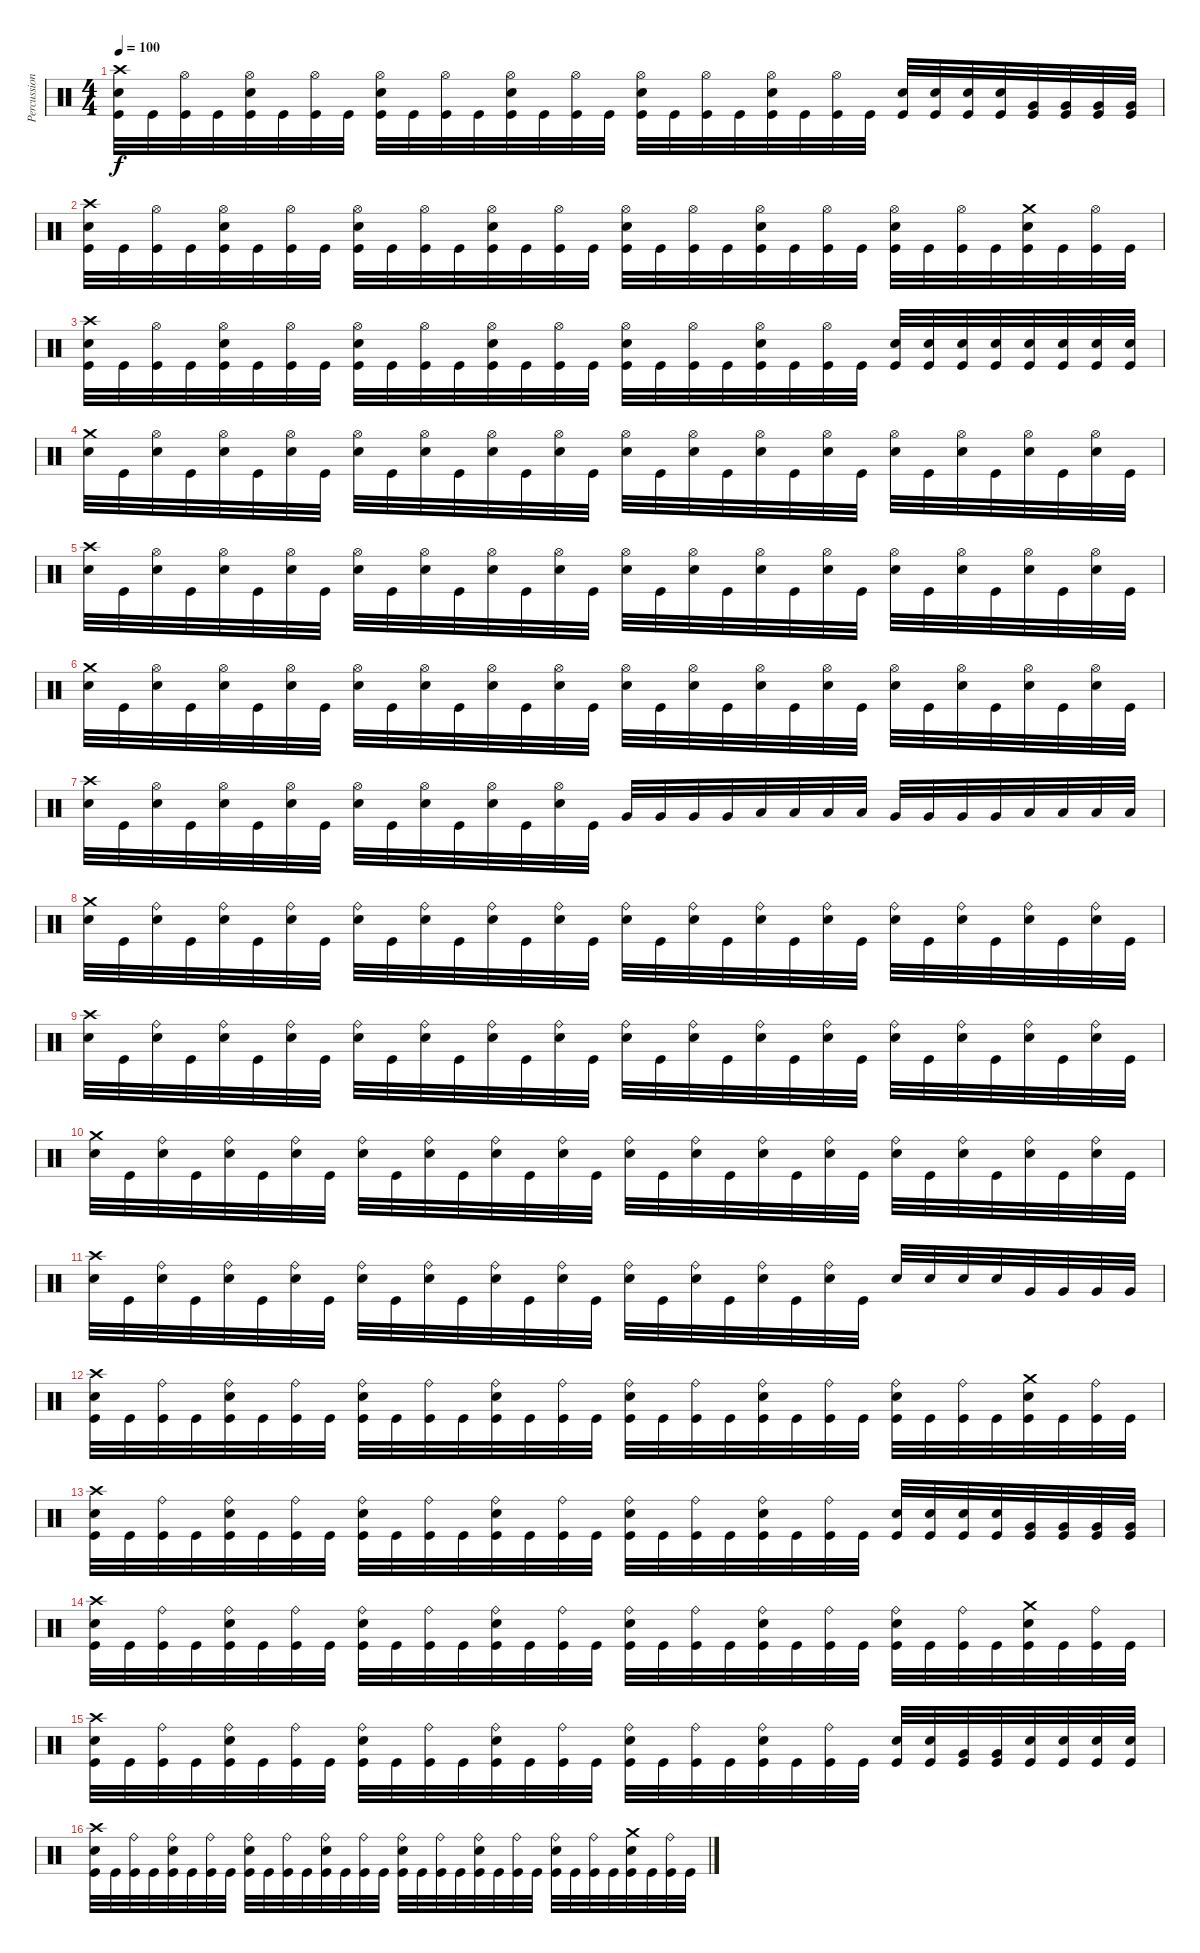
\track ("Percussion" "Percussion") {instrument percussion}
\staff {score}
\articulation defaults
\ts (4 4)
\tempo 100
\clef neutral
\ks c
("Crash high (hit)" "Electric Snare (hit)" "Kick (hit)").32{dy f} "Kick (hit)".32 ("Hi-Hat (open)" "Kick (hit)").32 "Kick (hit)".32 ("Hi-Hat (open)" "Electric Snare (hit)" "Kick (hit)").32 "Kick (hit)".32 ("Hi-Hat (open)" "Kick (hit)").32 "Kick (hit)".32 ("Hi-Hat (open)" "Electric Snare (hit)" "Kick (hit)").32 "Kick (hit)".32 ("Hi-Hat (open)" "Kick (hit)").32 "Kick (hit)".32 ("Hi-Hat (open)" "Electric Snare (hit)" "Kick (hit)").32 "Kick (hit)".32 ("Hi-Hat (open)" "Kick (hit)").32 "Kick (hit)".32 ("Hi-Hat (open)" "Electric Snare (hit)" "Kick (hit)").32 "Kick (hit)".32 ("Hi-Hat (open)" "Kick (hit)").32 "Kick (hit)".32 ("Hi-Hat (open)" "Electric Snare (hit)" "Kick (hit)").32 "Kick (hit)".32 ("Hi-Hat (open)" "Kick (hit)").32 "Kick (hit)".32 ("Electric Snare (hit)" "Kick (hit)").32 ("Electric Snare (hit)" "Kick (hit)").32 ("Electric Snare (hit)" "Kick (hit)").32 ("Electric Snare (hit)" "Kick (hit)").32 ("Very Low Tom (hit)" "Kick (hit)").32 ("Very Low Tom (hit)" "Kick (hit)").32 ("Very Low Tom (hit)" "Kick (hit)").32 ("Very Low Tom (hit)" "Kick (hit)").32 |
("Crash high (hit)" "Electric Snare (hit)" "Kick (hit)").32 "Kick (hit)".32 ("Hi-Hat (open)" "Kick (hit)").32 "Kick (hit)".32 ("Hi-Hat (open)" "Electric Snare (hit)" "Kick (hit)").32 "Kick (hit)".32 ("Hi-Hat (open)" "Kick (hit)").32 "Kick (hit)".32 ("Hi-Hat (open)" "Electric Snare (hit)" "Kick (hit)").32 "Kick (hit)".32 ("Hi-Hat (open)" "Kick (hit)").32 "Kick (hit)".32 ("Hi-Hat (open)" "Electric Snare (hit)" "Kick (hit)").32 "Kick (hit)".32 ("Hi-Hat (open)" "Kick (hit)").32 "Kick (hit)".32 ("Hi-Hat (open)" "Electric Snare (hit)" "Kick (hit)").32 "Kick (hit)".32 ("Hi-Hat (open)" "Kick (hit)").32 "Kick (hit)".32 ("Hi-Hat (open)" "Electric Snare (hit)" "Kick (hit)").32 "Kick (hit)".32 ("Hi-Hat (open)" "Kick (hit)").32 "Kick (hit)".32 ("Hi-Hat (open)" "Electric Snare (hit)" "Kick (hit)").32 "Kick (hit)".32 ("Hi-Hat (open)" "Kick (hit)").32 "Kick (hit)".32 ("Crash medium (hit)" "Electric Snare (hit)" "Kick (hit)").32 "Kick (hit)".32 ("Hi-Hat (open)" "Kick (hit)").32 "Kick (hit)".32 |
("Crash high (hit)" "Electric Snare (hit)" "Kick (hit)").32 "Kick (hit)".32 ("Hi-Hat (open)" "Kick (hit)").32 "Kick (hit)".32 ("Hi-Hat (open)" "Electric Snare (hit)" "Kick (hit)").32 "Kick (hit)".32 ("Hi-Hat (open)" "Kick (hit)").32 "Kick (hit)".32 ("Hi-Hat (open)" "Electric Snare (hit)" "Kick (hit)").32 "Kick (hit)".32 ("Hi-Hat (open)" "Kick (hit)").32 "Kick (hit)".32 ("Hi-Hat (open)" "Electric Snare (hit)" "Kick (hit)").32 "Kick (hit)".32 ("Hi-Hat (open)" "Kick (hit)").32 "Kick (hit)".32 ("Hi-Hat (open)" "Electric Snare (hit)" "Kick (hit)").32 "Kick (hit)".32 ("Hi-Hat (open)" "Kick (hit)").32 "Kick (hit)".32 ("Hi-Hat (open)" "Electric Snare (hit)" "Kick (hit)").32 "Kick (hit)".32 ("Hi-Hat (open)" "Kick (hit)").32 "Kick (hit)".32 ("Electric Snare (hit)" "Kick (hit)").32 ("Electric Snare (hit)" "Kick (hit)").32 ("Electric Snare (hit)" "Kick (hit)").32 ("Electric Snare (hit)" "Kick (hit)").32 ("Electric Snare (hit)" "Kick (hit)").32 ("Electric Snare (hit)" "Kick (hit)").32 ("Electric Snare (hit)" "Kick (hit)").32 ("Electric Snare (hit)" "Kick (hit)").32 |
("Crash medium (hit)" "Electric Snare (hit)").32 "Kick (hit)".32 ("Hi-Hat (open)" "Electric Snare (hit)").32 "Kick (hit)".32 ("Hi-Hat (open)" "Electric Snare (hit)").32 "Kick (hit)".32 ("Hi-Hat (open)" "Electric Snare (hit)").32 "Kick (hit)".32 ("Hi-Hat (open)" "Electric Snare (hit)").32 "Kick (hit)".32 ("Hi-Hat (open)" "Electric Snare (hit)").32 "Kick (hit)".32 ("Hi-Hat (open)" "Electric Snare (hit)").32 "Kick (hit)".32 ("Hi-Hat (open)" "Electric Snare (hit)").32 "Kick (hit)".32 ("Hi-Hat (open)" "Electric Snare (hit)").32 "Kick (hit)".32 ("Hi-Hat (open)" "Electric Snare (hit)").32 "Kick (hit)".32 ("Hi-Hat (open)" "Electric Snare (hit)").32 "Kick (hit)".32 ("Hi-Hat (open)" "Electric Snare (hit)").32 "Kick (hit)".32 ("Hi-Hat (open)" "Electric Snare (hit)").32 "Kick (hit)".32 ("Hi-Hat (open)" "Electric Snare (hit)").32 "Kick (hit)".32 ("Hi-Hat (open)" "Electric Snare (hit)").32 "Kick (hit)".32 ("Hi-Hat (open)" "Electric Snare (hit)").32 "Kick (hit)".32 |
("Crash high (hit)" "Electric Snare (hit)").32 "Kick (hit)".32 ("Hi-Hat (open)" "Electric Snare (hit)").32 "Kick (hit)".32 ("Hi-Hat (open)" "Electric Snare (hit)").32 "Kick (hit)".32 ("Hi-Hat (open)" "Electric Snare (hit)").32 "Kick (hit)".32 ("Hi-Hat (open)" "Electric Snare (hit)").32 "Kick (hit)".32 ("Hi-Hat (open)" "Electric Snare (hit)").32 "Kick (hit)".32 ("Hi-Hat (open)" "Electric Snare (hit)").32 "Kick (hit)".32 ("Hi-Hat (open)" "Electric Snare (hit)").32 "Kick (hit)".32 ("Hi-Hat (open)" "Electric Snare (hit)").32 "Kick (hit)".32 ("Hi-Hat (open)" "Electric Snare (hit)").32 "Kick (hit)".32 ("Hi-Hat (open)" "Electric Snare (hit)").32 "Kick (hit)".32 ("Hi-Hat (open)" "Electric Snare (hit)").32 "Kick (hit)".32 ("Hi-Hat (open)" "Electric Snare (hit)").32 "Kick (hit)".32 ("Hi-Hat (open)" "Electric Snare (hit)").32 "Kick (hit)".32 ("Hi-Hat (open)" "Electric Snare (hit)").32 "Kick (hit)".32 ("Hi-Hat (open)" "Electric Snare (hit)").32 "Kick (hit)".32 |
("Crash medium (hit)" "Electric Snare (hit)").32 "Kick (hit)".32 ("Hi-Hat (open)" "Electric Snare (hit)").32 "Kick (hit)".32 ("Hi-Hat (open)" "Electric Snare (hit)").32 "Kick (hit)".32 ("Hi-Hat (open)" "Electric Snare (hit)").32 "Kick (hit)".32 ("Hi-Hat (open)" "Electric Snare (hit)").32 "Kick (hit)".32 ("Hi-Hat (open)" "Electric Snare (hit)").32 "Kick (hit)".32 ("Hi-Hat (open)" "Electric Snare (hit)").32 "Kick (hit)".32 ("Hi-Hat (open)" "Electric Snare (hit)").32 "Kick (hit)".32 ("Hi-Hat (open)" "Electric Snare (hit)").32 "Kick (hit)".32 ("Hi-Hat (open)" "Electric Snare (hit)").32 "Kick (hit)".32 ("Hi-Hat (open)" "Electric Snare (hit)").32 "Kick (hit)".32 ("Hi-Hat (open)" "Electric Snare (hit)").32 "Kick (hit)".32 ("Hi-Hat (open)" "Electric Snare (hit)").32 "Kick (hit)".32 ("Hi-Hat (open)" "Electric Snare (hit)").32 "Kick (hit)".32 ("Hi-Hat (open)" "Electric Snare (hit)").32 "Kick (hit)".32 ("Hi-Hat (open)" "Electric Snare (hit)").32 "Kick (hit)".32 |
("Crash high (hit)" "Electric Snare (hit)").32 "Kick (hit)".32 ("Hi-Hat (open)" "Electric Snare (hit)").32 "Kick (hit)".32 ("Hi-Hat (open)" "Electric Snare (hit)").32 "Kick (hit)".32 ("Hi-Hat (open)" "Electric Snare (hit)").32 "Kick (hit)".32 ("Hi-Hat (open)" "Electric Snare (hit)").32 "Kick (hit)".32 ("Hi-Hat (open)" "Electric Snare (hit)").32 "Kick (hit)".32 ("Hi-Hat (open)" "Electric Snare (hit)").32 "Kick (hit)".32 ("Hi-Hat (open)" "Electric Snare (hit)").32 "Kick (hit)".32 "Very Low Tom (hit)".32 "Very Low Tom (hit)".32 "Very Low Tom (hit)".32 "Very Low Tom (hit)".32 "Low Floor Tom (hit)".32 "Low Floor Tom (hit)".32 "Low Floor Tom (hit)".32 "Low Floor Tom (hit)".32 "Very Low Tom (hit)".32 "Very Low Tom (hit)".32 "Very Low Tom (hit)".32 "Very Low Tom (hit)".32 "Low Floor Tom (hit)".32 "Low Floor Tom (hit)".32 "Low Floor Tom (hit)".32 "Low Floor Tom (hit)".32 |
("Crash medium (hit)" "Electric Snare (hit)").32 "Kick (hit)".32 ("Ride (bell)" "Electric Snare (hit)").32 "Kick (hit)".32 ("Ride (bell)" "Electric Snare (hit)").32 "Kick (hit)".32 ("Ride (bell)" "Electric Snare (hit)").32 "Kick (hit)".32 ("Ride (bell)" "Electric Snare (hit)").32 "Kick (hit)".32 ("Ride (bell)" "Electric Snare (hit)").32 "Kick (hit)".32 ("Ride (bell)" "Electric Snare (hit)").32 "Kick (hit)".32 ("Ride (bell)" "Electric Snare (hit)").32 "Kick (hit)".32 ("Ride (bell)" "Electric Snare (hit)").32 "Kick (hit)".32 ("Ride (bell)" "Electric Snare (hit)").32 "Kick (hit)".32 ("Ride (bell)" "Electric Snare (hit)").32 "Kick (hit)".32 ("Ride (bell)" "Electric Snare (hit)").32 "Kick (hit)".32 ("Ride (bell)" "Electric Snare (hit)").32 "Kick (hit)".32 ("Ride (bell)" "Electric Snare (hit)").32 "Kick (hit)".32 ("Ride (bell)" "Electric Snare (hit)").32 "Kick (hit)".32 ("Ride (bell)" "Electric Snare (hit)").32 "Kick (hit)".32 |
("Crash high (hit)" "Electric Snare (hit)").32 "Kick (hit)".32 ("Ride (bell)" "Electric Snare (hit)").32 "Kick (hit)".32 ("Ride (bell)" "Electric Snare (hit)").32 "Kick (hit)".32 ("Ride (bell)" "Electric Snare (hit)").32 "Kick (hit)".32 ("Ride (bell)" "Electric Snare (hit)").32 "Kick (hit)".32 ("Ride (bell)" "Electric Snare (hit)").32 "Kick (hit)".32 ("Ride (bell)" "Electric Snare (hit)").32 "Kick (hit)".32 ("Ride (bell)" "Electric Snare (hit)").32 "Kick (hit)".32 ("Ride (bell)" "Electric Snare (hit)").32 "Kick (hit)".32 ("Ride (bell)" "Electric Snare (hit)").32 "Kick (hit)".32 ("Ride (bell)" "Electric Snare (hit)").32 "Kick (hit)".32 ("Ride (bell)" "Electric Snare (hit)").32 "Kick (hit)".32 ("Ride (bell)" "Electric Snare (hit)").32 "Kick (hit)".32 ("Ride (bell)" "Electric Snare (hit)").32 "Kick (hit)".32 ("Ride (bell)" "Electric Snare (hit)").32 "Kick (hit)".32 ("Ride (bell)" "Electric Snare (hit)").32 "Kick (hit)".32 |
("Crash medium (hit)" "Electric Snare (hit)").32 "Kick (hit)".32 ("Ride (bell)" "Electric Snare (hit)").32 "Kick (hit)".32 ("Ride (bell)" "Electric Snare (hit)").32 "Kick (hit)".32 ("Ride (bell)" "Electric Snare (hit)").32 "Kick (hit)".32 ("Ride (bell)" "Electric Snare (hit)").32 "Kick (hit)".32 ("Ride (bell)" "Electric Snare (hit)").32 "Kick (hit)".32 ("Ride (bell)" "Electric Snare (hit)").32 "Kick (hit)".32 ("Ride (bell)" "Electric Snare (hit)").32 "Kick (hit)".32 ("Ride (bell)" "Electric Snare (hit)").32 "Kick (hit)".32 ("Ride (bell)" "Electric Snare (hit)").32 "Kick (hit)".32 ("Ride (bell)" "Electric Snare (hit)").32 "Kick (hit)".32 ("Ride (bell)" "Electric Snare (hit)").32 "Kick (hit)".32 ("Ride (bell)" "Electric Snare (hit)").32 "Kick (hit)".32 ("Ride (bell)" "Electric Snare (hit)").32 "Kick (hit)".32 ("Ride (bell)" "Electric Snare (hit)").32 "Kick (hit)".32 ("Ride (bell)" "Electric Snare (hit)").32 "Kick (hit)".32 |
("Crash high (hit)" "Electric Snare (hit)").32 "Kick (hit)".32 ("Ride (bell)" "Electric Snare (hit)").32 "Kick (hit)".32 ("Ride (bell)" "Electric Snare (hit)").32 "Kick (hit)".32 ("Ride (bell)" "Electric Snare (hit)").32 "Kick (hit)".32 ("Ride (bell)" "Electric Snare (hit)").32 "Kick (hit)".32 ("Ride (bell)" "Electric Snare (hit)").32 "Kick (hit)".32 ("Ride (bell)" "Electric Snare (hit)").32 "Kick (hit)".32 ("Ride (bell)" "Electric Snare (hit)").32 "Kick (hit)".32 ("Ride (bell)" "Electric Snare (hit)").32 "Kick (hit)".32 ("Ride (bell)" "Electric Snare (hit)").32 "Kick (hit)".32 ("Ride (bell)" "Electric Snare (hit)").32 "Kick (hit)".32 ("Ride (bell)" "Electric Snare (hit)").32 "Kick (hit)".32 "Electric Snare (hit)".32 "Electric Snare (hit)".32 "Electric Snare (hit)".32 "Electric Snare (hit)".32 "Very Low Tom (hit)".32 "Very Low Tom (hit)".32 "Very Low Tom (hit)".32 "Very Low Tom (hit)".32 |
("Crash high (hit)" "Electric Snare (hit)" "Kick (hit)").32 "Kick (hit)".32 ("Ride (bell)" "Kick (hit)").32 "Kick (hit)".32 ("Ride (bell)" "Electric Snare (hit)" "Kick (hit)").32 "Kick (hit)".32 ("Ride (bell)" "Kick (hit)").32 "Kick (hit)".32 ("Ride (bell)" "Electric Snare (hit)" "Kick (hit)").32 "Kick (hit)".32 ("Ride (bell)" "Kick (hit)").32 "Kick (hit)".32 ("Ride (bell)" "Electric Snare (hit)" "Kick (hit)").32 "Kick (hit)".32 ("Ride (bell)" "Kick (hit)").32 "Kick (hit)".32 ("Ride (bell)" "Electric Snare (hit)" "Kick (hit)").32 "Kick (hit)".32 ("Ride (bell)" "Kick (hit)").32 "Kick (hit)".32 ("Ride (bell)" "Electric Snare (hit)" "Kick (hit)").32 "Kick (hit)".32 ("Ride (bell)" "Kick (hit)").32 "Kick (hit)".32 ("Ride (bell)" "Electric Snare (hit)" "Kick (hit)").32 "Kick (hit)".32 ("Ride (bell)" "Kick (hit)").32 "Kick (hit)".32 ("Crash medium (hit)" "Electric Snare (hit)" "Kick (hit)").32 "Kick (hit)".32 ("Ride (bell)" "Kick (hit)").32 "Kick (hit)".32 |
("Crash high (hit)" "Electric Snare (hit)" "Kick (hit)").32 "Kick (hit)".32 ("Ride (bell)" "Kick (hit)").32 "Kick (hit)".32 ("Ride (bell)" "Electric Snare (hit)" "Kick (hit)").32 "Kick (hit)".32 ("Ride (bell)" "Kick (hit)").32 "Kick (hit)".32 ("Ride (bell)" "Electric Snare (hit)" "Kick (hit)").32 "Kick (hit)".32 ("Ride (bell)" "Kick (hit)").32 "Kick (hit)".32 ("Ride (bell)" "Electric Snare (hit)" "Kick (hit)").32 "Kick (hit)".32 ("Ride (bell)" "Kick (hit)").32 "Kick (hit)".32 ("Ride (bell)" "Electric Snare (hit)" "Kick (hit)").32 "Kick (hit)".32 ("Ride (bell)" "Kick (hit)").32 "Kick (hit)".32 ("Ride (bell)" "Electric Snare (hit)" "Kick (hit)").32 "Kick (hit)".32 ("Ride (bell)" "Kick (hit)").32 "Kick (hit)".32 ("Electric Snare (hit)" "Kick (hit)").32 ("Electric Snare (hit)" "Kick (hit)").32 ("Electric Snare (hit)" "Kick (hit)").32 ("Electric Snare (hit)" "Kick (hit)").32 ("Very Low Tom (hit)" "Kick (hit)").32 ("Very Low Tom (hit)" "Kick (hit)").32 ("Very Low Tom (hit)" "Kick (hit)").32 ("Very Low Tom (hit)" "Kick (hit)").32 |
("Crash high (hit)" "Electric Snare (hit)" "Kick (hit)").32 "Kick (hit)".32 ("Ride (bell)" "Kick (hit)").32 "Kick (hit)".32 ("Ride (bell)" "Electric Snare (hit)" "Kick (hit)").32 "Kick (hit)".32 ("Ride (bell)" "Kick (hit)").32 "Kick (hit)".32 ("Ride (bell)" "Electric Snare (hit)" "Kick (hit)").32 "Kick (hit)".32 ("Ride (bell)" "Kick (hit)").32 "Kick (hit)".32 ("Ride (bell)" "Electric Snare (hit)" "Kick (hit)").32 "Kick (hit)".32 ("Ride (bell)" "Kick (hit)").32 "Kick (hit)".32 ("Ride (bell)" "Electric Snare (hit)" "Kick (hit)").32 "Kick (hit)".32 ("Ride (bell)" "Kick (hit)").32 "Kick (hit)".32 ("Ride (bell)" "Electric Snare (hit)" "Kick (hit)").32 "Kick (hit)".32 ("Ride (bell)" "Kick (hit)").32 "Kick (hit)".32 ("Ride (bell)" "Electric Snare (hit)" "Kick (hit)").32 "Kick (hit)".32 ("Ride (bell)" "Kick (hit)").32 "Kick (hit)".32 ("Crash medium (hit)" "Electric Snare (hit)" "Kick (hit)").32 "Kick (hit)".32 ("Ride (bell)" "Kick (hit)").32 "Kick (hit)".32 |
("Crash high (hit)" "Electric Snare (hit)" "Kick (hit)").32 "Kick (hit)".32 ("Ride (bell)" "Kick (hit)").32 "Kick (hit)".32 ("Ride (bell)" "Electric Snare (hit)" "Kick (hit)").32 "Kick (hit)".32 ("Ride (bell)" "Kick (hit)").32 "Kick (hit)".32 ("Ride (bell)" "Electric Snare (hit)" "Kick (hit)").32 "Kick (hit)".32 ("Ride (bell)" "Kick (hit)").32 "Kick (hit)".32 ("Ride (bell)" "Electric Snare (hit)" "Kick (hit)").32 "Kick (hit)".32 ("Ride (bell)" "Kick (hit)").32 "Kick (hit)".32 ("Ride (bell)" "Electric Snare (hit)" "Kick (hit)").32 "Kick (hit)".32 ("Ride (bell)" "Kick (hit)").32 "Kick (hit)".32 ("Ride (bell)" "Electric Snare (hit)" "Kick (hit)").32 "Kick (hit)".32 ("Ride (bell)" "Kick (hit)").32 "Kick (hit)".32 ("Electric Snare (hit)" "Kick (hit)").32 ("Electric Snare (hit)" "Kick (hit)").32 ("Very Low Tom (hit)" "Kick (hit)").32 ("Very Low Tom (hit)" "Kick (hit)").32 ("Electric Snare (hit)" "Kick (hit)").32 ("Electric Snare (hit)" "Kick (hit)").32 ("Electric Snare (hit)" "Kick (hit)").32 ("Electric Snare (hit)" "Kick (hit)").32 |
("Crash high (hit)" "Electric Snare (hit)" "Kick (hit)").32 "Kick (hit)".32 ("Ride (bell)" "Kick (hit)").32 "Kick (hit)".32 ("Ride (bell)" "Electric Snare (hit)" "Kick (hit)").32 "Kick (hit)".32 ("Ride (bell)" "Kick (hit)").32 "Kick (hit)".32 ("Ride (bell)" "Electric Snare (hit)" "Kick (hit)").32 "Kick (hit)".32 ("Ride (bell)" "Kick (hit)").32 "Kick (hit)".32 ("Ride (bell)" "Electric Snare (hit)" "Kick (hit)").32 "Kick (hit)".32 ("Ride (bell)" "Kick (hit)").32 "Kick (hit)".32 ("Ride (bell)" "Electric Snare (hit)" "Kick (hit)").32 "Kick (hit)".32 ("Ride (bell)" "Kick (hit)").32 "Kick (hit)".32 ("Ride (bell)" "Electric Snare (hit)" "Kick (hit)").32 "Kick (hit)".32 ("Ride (bell)" "Kick (hit)").32 "Kick (hit)".32 ("Ride (bell)" "Electric Snare (hit)" "Kick (hit)").32 "Kick (hit)".32 ("Ride (bell)" "Kick (hit)").32 "Kick (hit)".32 ("Crash medium (hit)" "Electric Snare (hit)" "Kick (hit)").32 "Kick (hit)".32 ("Ride (bell)" "Kick (hit)").32 "Kick (hit)".32
